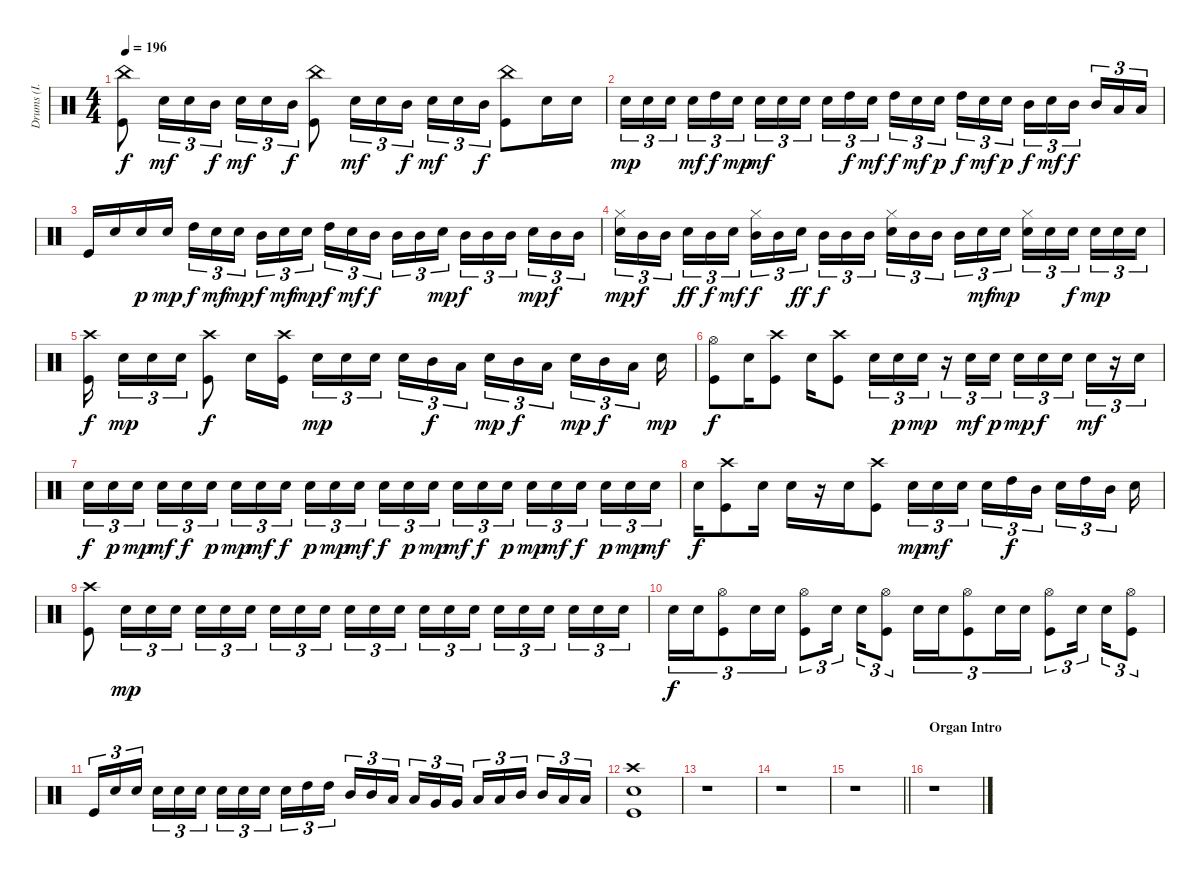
\track ("Drums (I. Paice)" "Drums (I. ") {instrument percussion}
\staff {score}
\articulation defaults
\ts (4 4)
\tempo 196
\clef neutral
\ks c
("China (hit)" "Kick (hit)").8{dy f} "Electric Snare (hit)".16{tu (3 2) dy mf} "Electric Snare (hit)".16{tu (3 2)} "Mid Tom (hit)".16{tu (3 2) dy f} "Electric Snare (hit)".16{tu (3 2) dy mf} "Electric Snare (hit)".16{tu (3 2)} "Mid Tom (hit)".16{tu (3 2) dy f} ("China (hit)" "Kick (hit)").8 "Electric Snare (hit)".16{tu (3 2) dy mf} "Electric Snare (hit)".16{tu (3 2)} "Mid Tom (hit)".16{tu (3 2) dy f} "Electric Snare (hit)".16{tu (3 2) dy mf} "Electric Snare (hit)".16{tu (3 2)} "Mid Tom (hit)".16{tu (3 2) dy f} ("China (hit)" "Kick (hit)").8 "Electric Snare (hit)".16 "Electric Snare (hit)".16 |
"Electric Snare (hit)".16{tu (3 2) dy mp} "Electric Snare (hit)".16{tu (3 2)} "Electric Snare (hit)".16{tu (3 2)} "Electric Snare (hit)".16{tu (3 2) dy mf} "High Tom (hit)".16{tu (3 2) dy f} "Electric Snare (hit)".16{tu (3 2) dy mp} "Electric Snare (hit)".16{tu (3 2) dy mf} "Electric Snare (hit)".16{tu (3 2)} "Electric Snare (hit)".16{tu (3 2)} "Electric Snare (hit)".16{tu (3 2)} "High Tom (hit)".16{tu (3 2) dy f} "Electric Snare (hit)".16{tu (3 2) dy mf} "High Tom (hit)".16{tu (3 2) dy f} "Electric Snare (hit)".16{tu (3 2) dy mf} "Electric Snare (hit)".16{tu (3 2) dy p} "High Tom (hit)".16{tu (3 2) dy f} "Electric Snare (hit)".16{tu (3 2) dy mf} "Electric Snare (hit)".16{tu (3 2) dy p} "Mid Tom (hit)".16{tu (3 2) dy f} "Electric Snare (hit)".16{tu (3 2) dy mf} "Mid Tom (hit)".16{tu (3 2) dy f} "Mid Tom (hit)".16{tu (3 2)} "Low Tom (hit)".16{tu (3 2)} "Low Tom (hit)".16{tu (3 2)} |
"Kick (hit)".16 "Electric Snare (hit)".16 "Electric Snare (hit)".16{dy p} "Electric Snare (hit)".16{dy mp} "High Tom (hit)".16{tu (3 2) dy f} "Electric Snare (hit)".16{tu (3 2) dy mf} "Electric Snare (hit)".16{tu (3 2) dy mp} "Mid Tom (hit)".16{tu (3 2) dy f} "Electric Snare (hit)".16{tu (3 2) dy mf} "Electric Snare (hit)".16{tu (3 2) dy mp} "High Tom (hit)".16{tu (3 2) dy f} "Electric Snare (hit)".16{tu (3 2) dy mf} "Mid Tom (hit)".16{tu (3 2) dy f} "Mid Tom (hit)".16{tu (3 2)} "Mid Tom (hit)".16{tu (3 2)} "Electric Snare (hit)".16{tu (3 2) dy mp} "Mid Tom (hit)".16{tu (3 2) dy f} "Mid Tom (hit)".16{tu (3 2)} "Mid Tom (hit)".16{tu (3 2)} "Electric Snare (hit)".16{tu (3 2) dy mp} "Mid Tom (hit)".16{tu (3 2) dy f} "Mid Tom (hit)".16{tu (3 2)} |
("Hi-Hat (closed)" "Electric Snare (hit)").16{tu (3 2) dy mp} "Mid Tom (hit)".16{tu (3 2) dy f} "Mid Tom (hit)".16{tu (3 2)} "Electric Snare (hit)".16{tu (3 2) dy ff} "Mid Tom (hit)".16{tu (3 2) dy f} "Electric Snare (hit)".16{tu (3 2) dy mf} ("Hi-Hat (closed)" "Mid Tom (hit)").16{tu (3 2) dy f} "Mid Tom (hit)".16{tu (3 2)} "Electric Snare (hit)".16{tu (3 2) dy ff} "Mid Tom (hit)".16{tu (3 2) dy f} "Mid Tom (hit)".16{tu (3 2)} "Mid Tom (hit)".16{tu (3 2)} ("Hi-Hat (closed)" "Electric Snare (hit)").16{tu (3 2)} "Mid Tom (hit)".16{tu (3 2)} "Mid Tom (hit)".16{tu (3 2)} "Mid Tom (hit)".16{tu (3 2)} "Electric Snare (hit)".16{tu (3 2) dy mf} "Electric Snare (hit)".16{tu (3 2) dy mp} ("Hi-Hat (closed)" "Electric Snare (hit)").16{tu (3 2)} "Electric Snare (hit)".16{tu (3 2)} "Electric Snare (hit)".16{tu (3 2) dy f} "Electric Snare (hit)".16{tu (3 2) dy mp} "Electric Snare (hit)".16{tu (3 2)} "Electric Snare (hit)".16{tu (3 2)} |
("Crash high (hit)" "Kick (hit)").16{dy f} "Electric Snare (hit)".16{tu (3 2) dy mp} "Electric Snare (hit)".16{tu (3 2)} "Electric Snare (hit)".16{tu (3 2)} ("Crash high (hit)" "Kick (hit)").8{dy f} "Electric Snare (hit)".16 ("Crash high (hit)" "Kick (hit)").16 "Electric Snare (hit)".16{tu (3 2) dy mp} "Electric Snare (hit)".16{tu (3 2)} "Electric Snare (hit)".16{tu (3 2)} "Electric Snare (hit)".16{tu (3 2)} "Mid Tom (hit)".16{tu (3 2) dy f} "Low Tom (hit)".16{tu (3 2)} "Electric Snare (hit)".16{tu (3 2) dy mp} "Mid Tom (hit)".16{tu (3 2) dy f} "Low Tom (hit)".16{tu (3 2)} "Electric Snare (hit)".16{tu (3 2) dy mp} "Mid Tom (hit)".16{tu (3 2) dy f} "Low Tom (hit)".16{tu (3 2)} "Electric Snare (hit)".16{dy mp} |
("Hi-Hat (open)" "Kick (hit)").8{dy f} "Electric Snare (hit)".16 ("Crash high (hit)" "Kick (hit)").8 "Electric Snare (hit)".16 ("Crash high (hit)" "Kick (hit)").8 "Electric Snare (hit)".16{tu (3 2)} "Electric Snare (hit)".16{tu (3 2) dy p} "Electric Snare (hit)".16{tu (3 2) dy mp} r.16{tu (3 2)} "Electric Snare (hit)".16{tu (3 2) dy mf} "Electric Snare (hit)".16{tu (3 2) dy p} "Electric Snare (hit)".16{tu (3 2) dy mp} "Electric Snare (hit)".16{tu (3 2) dy f} "Electric Snare (hit)".16{tu (3 2)} "Electric Snare (hit)".16{tu (3 2) dy mf} r.16{tu (3 2)} "Electric Snare (hit)".16{tu (3 2)} |
"Electric Snare (hit)".16{tu (3 2) dy f} "Electric Snare (hit)".16{tu (3 2) dy p} "Electric Snare (hit)".16{tu (3 2) dy mp} "Electric Snare (hit)".16{tu (3 2) dy mf} "Electric Snare (hit)".16{tu (3 2) dy f} "Electric Snare (hit)".16{tu (3 2) dy p} "Electric Snare (hit)".16{tu (3 2) dy mp} "Electric Snare (hit)".16{tu (3 2) dy mf} "Electric Snare (hit)".16{tu (3 2) dy f} "Electric Snare (hit)".16{tu (3 2) dy p} "Electric Snare (hit)".16{tu (3 2) dy mp} "Electric Snare (hit)".16{tu (3 2) dy mf} "Electric Snare (hit)".16{tu (3 2) dy f} "Electric Snare (hit)".16{tu (3 2) dy p} "Electric Snare (hit)".16{tu (3 2) dy mp} "Electric Snare (hit)".16{tu (3 2) dy mf} "Electric Snare (hit)".16{tu (3 2) dy f} "Electric Snare (hit)".16{tu (3 2) dy p} "Electric Snare (hit)".16{tu (3 2) dy mp} "Electric Snare (hit)".16{tu (3 2) dy mf} "Electric Snare (hit)".16{tu (3 2) dy f} "Electric Snare (hit)".16{tu (3 2) dy p} "Electric Snare (hit)".16{tu (3 2) dy mp} "Electric Snare (hit)".16{tu (3 2) dy mf} |
"Electric Snare (hit)".16{dy f} ("Crash high (hit)" "Kick (hit)").8 "Electric Snare (hit)".16 "Electric Snare (hit)".16 r.16 "Electric Snare (hit)".16 ("Crash high (hit)" "Kick (hit)").8 "Electric Snare (hit)".16{tu (3 2) dy mp} "Electric Snare (hit)".16{tu (3 2) dy mf} "Electric Snare (hit)".16{tu (3 2)} "Electric Snare (hit)".16{tu (3 2)} "High Tom (hit)".16{tu (3 2) dy f} "Mid Tom (hit)".16{tu (3 2)} "Electric Snare (hit)".16{tu (3 2)} "High Tom (hit)".16{tu (3 2)} "Mid Tom (hit)".16{tu (3 2)} "Electric Snare (hit)".16 |
("Crash high (hit)" "Kick (hit)").8 "Electric Snare (hit)".16{tu (3 2) dy mp} "Electric Snare (hit)".16{tu (3 2)} "Electric Snare (hit)".16{tu (3 2)} "Electric Snare (hit)".16{tu (3 2)} "Electric Snare (hit)".16{tu (3 2)} "Electric Snare (hit)".16{tu (3 2)} "Electric Snare (hit)".16{tu (3 2)} "Electric Snare (hit)".16{tu (3 2)} "Electric Snare (hit)".16{tu (3 2)} "Electric Snare (hit)".16{tu (3 2)} "Electric Snare (hit)".16{tu (3 2)} "Electric Snare (hit)".16{tu (3 2)} "Electric Snare (hit)".16{tu (3 2)} "Electric Snare (hit)".16{tu (3 2)} "Electric Snare (hit)".16{tu (3 2)} "Electric Snare (hit)".16{tu (3 2)} "Electric Snare (hit)".16{tu (3 2)} "Electric Snare (hit)".16{tu (3 2)} "Electric Snare (hit)".16{tu (3 2)} "Electric Snare (hit)".16{tu (3 2)} "Electric Snare (hit)".16{tu (3 2)} |
"Electric Snare (hit)".16{tu (3 2) dy f} "Electric Snare (hit)".16{tu (3 2)} ("Hi-Hat (open)" "Kick (hit)").8{tu (3 2)} "Electric Snare (hit)".16{tu (3 2)} "Electric Snare (hit)".16{tu (3 2)} ("Hi-Hat (open)" "Kick (hit)").8{tu (3 2)} "Electric Snare (hit)".16{tu (3 2)} "Electric Snare (hit)".16{tu (3 2)} ("Hi-Hat (open)" "Kick (hit)").8{tu (3 2)} "Electric Snare (hit)".16{tu (3 2)} "Electric Snare (hit)".16{tu (3 2)} ("Hi-Hat (open)" "Kick (hit)").8{tu (3 2)} "Electric Snare (hit)".16{tu (3 2)} "Electric Snare (hit)".16{tu (3 2)} ("Hi-Hat (open)" "Kick (hit)").8{tu (3 2)} "Electric Snare (hit)".16{tu (3 2)} "Electric Snare (hit)".16{tu (3 2)} ("Hi-Hat (open)" "Kick (hit)").8{tu (3 2)} |
"Kick (hit)".16{tu (3 2)} "Electric Snare (hit)".16{tu (3 2)} "Electric Snare (hit)".16{tu (3 2)} "Electric Snare (hit)".16{tu (3 2)} "Electric Snare (hit)".16{tu (3 2)} "Electric Snare (hit)".16{tu (3 2)} "Electric Snare (hit)".16{tu (3 2)} "Electric Snare (hit)".16{tu (3 2)} "Electric Snare (hit)".16{tu (3 2)} "Electric Snare (hit)".16{tu (3 2)} "High Tom (hit)".16{tu (3 2)} "High Tom (hit)".16{tu (3 2)} "Mid Tom (hit)".16{tu (3 2)} "Mid Tom (hit)".16{tu (3 2)} "Low Tom (hit)".16{tu (3 2)} "Low Tom (hit)".16{tu (3 2)} "Very Low Tom (hit)".16{tu (3 2)} "Very Low Tom (hit)".16{tu (3 2)} "Low Tom (hit)".16{tu (3 2)} "Low Tom (hit)".16{tu (3 2)} "Mid Tom (hit)".16{tu (3 2)} "Mid Tom (hit)".16{tu (3 2)} "Low Tom (hit)".16{tu (3 2)} "Low Tom (hit)".16{tu (3 2)} |
("Crash high (hit)" "Electric Snare (hit)" "Kick (hit)").1 |
r.1 |
r.1 |
\barLineRight lightlight
r.1 |
\section ("" "Organ Intro")
r.1
